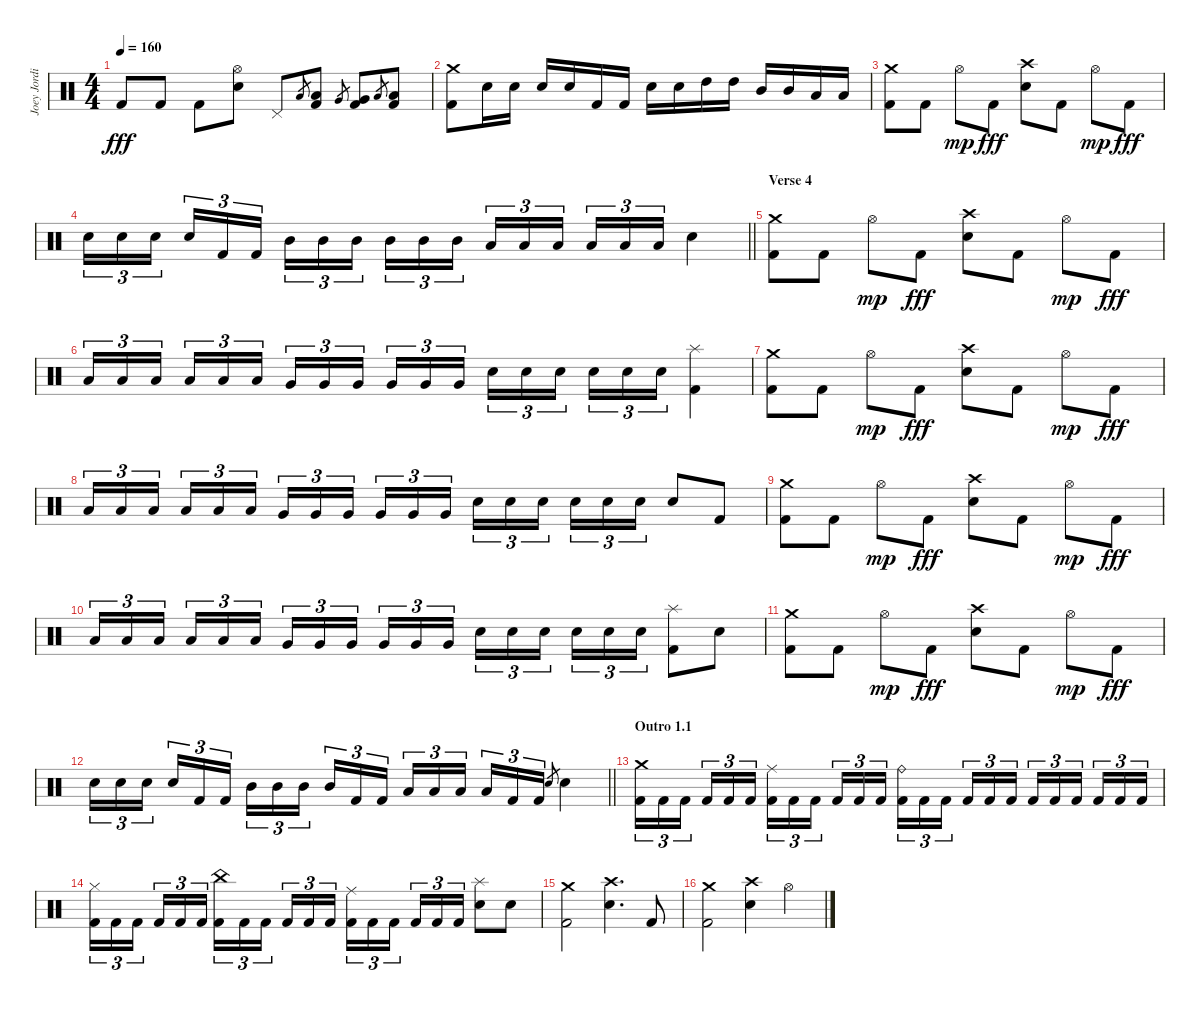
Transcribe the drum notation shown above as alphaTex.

\track ("Joey Jordison" "Joey Jordi") {instrument percussion}
\staff {score}
\articulation defaults
\ts (4 4)
\tempo 160
\clef neutral
\ks c "Kick (hit) 2".8{dy fff} "Kick (hit) 2".8 "Kick (hit) 2".8
("Hi-Hat (open)" "Electric Snare (hit)").8 "Pedal Hi-Hat (hit)".8 "Low Tom (hit)".8{gr} ("Low Tom (hit)" "Kick (hit) 2").8 "Very Low Tom (hit)".8{gr} ("Very Low Tom (hit)" "Kick (hit) 2").8 "Low Floor Tom (hit)".8{gr} ("Low Floor Tom (hit)" "Kick (hit) 2").8 |
("Crash medium (hit)" "Kick (hit) 2").8 "Electric Snare (hit)".16 "Electric Snare (hit)".16 "Electric Snare (hit)".16 "Electric Snare (hit)".16 "Kick (hit) 2".16 "Kick (hit) 2".16 "Electric Snare (hit)".16 "Electric Snare (hit)".16 "High Tom (hit)".16 "High Tom (hit)".16 "Mid Tom (hit)".16 "Mid Tom (hit)".16 "Low Tom (hit)".16 "Low Tom (hit)".16 |
("Crash medium (hit)" "Kick (hit) 2").8 "Kick (hit) 2".8 "Hi-Hat (open)".8{dy mp} "Kick (hit) 2".8{dy fff} ("Crash high (hit)" "Electric Snare (hit)").8 "Kick (hit) 2".8 "Hi-Hat (open)".8{dy mp} "Kick (hit) 2".8{dy fff} |
\barLineRight lightlight "Electric Snare (hit)".16{tu (3 2)} "Electric Snare (hit)".16{tu (3 2)} "Electric Snare (hit)".16{tu (3 2) beam splitsecondary} "Electric Snare (hit)".16{tu (3 2)} "Kick (hit) 2".16{tu (3 2)} "Kick (hit) 2".16{tu (3 2)} "Mid Tom (hit)".16{tu (3 2)} "Mid Tom (hit)".16{tu (3 2)} "Mid Tom (hit)".16{tu (3 2) beam splitsecondary} "Mid Tom (hit)".16{tu (3 2)} "Mid Tom (hit)".16{tu (3 2)} "Mid Tom (hit)".16{tu (3 2)} "Low Tom (hit)".16{tu (3 2)} "Low Tom (hit)".16{tu (3 2)} "Low Tom (hit)".16{tu (3 2) beam splitsecondary} "Low Tom (hit)".16{tu (3 2)} "Low Tom (hit)".16{tu (3 2)} "Low Tom (hit)".16{tu (3 2)} "Electric Snare (hit)".4
|
\section ("" "Verse 4")
("Crash medium (hit)" "Kick (hit) 2").8 "Kick (hit) 2".8 "Hi-Hat (open)".8{dy mp} "Kick (hit) 2".8{dy fff} ("Crash high (hit)" "Electric Snare (hit)").8 "Kick (hit) 2".8 "Hi-Hat (open)".8{dy mp} "Kick (hit) 2".8{dy fff} |
"Low Tom (hit)".16{tu (3 2)} "Low Tom (hit)".16{tu (3 2)} "Low Tom (hit)".16{tu (3 2) beam splitsecondary} "Low Tom (hit)".16{tu (3 2)} "Low Tom (hit)".16{tu (3 2)} "Low Tom (hit)".16{tu (3 2)} "Very Low Tom (hit)".16{tu (3 2)} "Very Low Tom (hit)".16{tu (3 2)} "Very Low Tom (hit)".16{tu (3 2) beam splitsecondary} "Very Low Tom (hit)".16{tu (3 2)} "Very Low Tom (hit)".16{tu (3 2)} "Very Low Tom (hit)".16{tu (3 2)} "Electric Snare (hit)".16{tu (3 2)} "Electric Snare (hit)".16{tu (3 2)} "Electric Snare (hit)".16{tu (3 2) beam splitsecondary} "Electric Snare (hit)".16{tu (3 2)} "Electric Snare (hit)".16{tu (3 2)} "Electric Snare (hit)".16{tu (3 2)} ("Splash (hit)" "Kick (hit) 2").4 |
("Crash medium (hit)" "Kick (hit) 2").8 "Kick (hit) 2".8 "Hi-Hat (open)".8{dy mp} "Kick (hit) 2".8{dy fff} ("Crash high (hit)" "Electric Snare (hit)").8 "Kick (hit) 2".8 "Hi-Hat (open)".8{dy mp} "Kick (hit) 2".8{dy fff} |
"Low Tom (hit)".16{tu (3 2)} "Low Tom (hit)".16{tu (3 2)} "Low Tom (hit)".16{tu (3 2) beam splitsecondary} "Low Tom (hit)".16{tu (3 2)} "Low Tom (hit)".16{tu (3 2)} "Low Tom (hit)".16{tu (3 2)} "Very Low Tom (hit)".16{tu (3 2)} "Very Low Tom (hit)".16{tu (3 2)} "Very Low Tom (hit)".16{tu (3 2) beam splitsecondary} "Very Low Tom (hit)".16{tu (3 2)} "Very Low Tom (hit)".16{tu (3 2)} "Very Low Tom (hit)".16{tu (3 2)} "Electric Snare (hit)".16{tu (3 2)} "Electric Snare (hit)".16{tu (3 2)} "Electric Snare (hit)".16{tu (3 2) beam splitsecondary} "Electric Snare (hit)".16{tu (3 2)} "Electric Snare (hit)".16{tu (3 2)} "Electric Snare (hit)".16{tu (3 2)} "Electric Snare (hit)".8 "Kick (hit) 2".8 |
("Crash medium (hit)" "Kick (hit) 2").8 "Kick (hit) 2".8 "Hi-Hat (open)".8{dy mp} "Kick (hit) 2".8{dy fff} ("Crash high (hit)" "Electric Snare (hit)").8 "Kick (hit) 2".8 "Hi-Hat (open)".8{dy mp} "Kick (hit) 2".8{dy fff} |
"Low Tom (hit)".16{tu (3 2)} "Low Tom (hit)".16{tu (3 2)} "Low Tom (hit)".16{tu (3 2) beam splitsecondary} "Low Tom (hit)".16{tu (3 2)} "Low Tom (hit)".16{tu (3 2)} "Low Tom (hit)".16{tu (3 2)} "Very Low Tom (hit)".16{tu (3 2)} "Very Low Tom (hit)".16{tu (3 2)} "Very Low Tom (hit)".16{tu (3 2) beam splitsecondary} "Very Low Tom (hit)".16{tu (3 2)} "Very Low Tom (hit)".16{tu (3 2)} "Very Low Tom (hit)".16{tu (3 2)} "Electric Snare (hit)".16{tu (3 2)} "Electric Snare (hit)".16{tu (3 2)} "Electric Snare (hit)".16{tu (3 2) beam splitsecondary} "Electric Snare (hit)".16{tu (3 2)} "Electric Snare (hit)".16{tu (3 2)} "Electric Snare (hit)".16{tu (3 2)} ("Splash (hit)" "Kick (hit) 2").8 "Electric Snare (hit)".8 |
("Crash medium (hit)" "Kick (hit) 2").8 "Kick (hit) 2".8 "Hi-Hat (open)".8{dy mp} "Kick (hit) 2".8{dy fff} ("Crash high (hit)" "Electric Snare (hit)").8 "Kick (hit) 2".8 "Hi-Hat (open)".8{dy mp} "Kick (hit) 2".8{dy fff} |
\barLineRight lightlight "Electric Snare (hit)".16{tu (3 2)} "Electric Snare (hit)".16{tu (3 2)} "Electric Snare (hit)".16{tu (3 2) beam splitsecondary} "Electric Snare (hit)".16{tu (3 2)} "Kick (hit) 2".16{tu (3 2)} "Kick (hit) 2".16{tu (3 2)} "Mid Tom (hit)".16{tu (3 2)} "Mid Tom (hit)".16{tu (3 2)} "Mid Tom (hit)".16{tu (3 2) beam splitsecondary} "Mid Tom (hit)".16{tu (3 2)} "Kick (hit) 2".16{tu (3 2)} "Kick (hit) 2".16{tu (3 2)} "Low Tom (hit)".16{tu (3 2)} "Low Tom (hit)".16{tu (3 2)} "Low Tom (hit)".16{tu (3 2) beam splitsecondary} "Low Tom (hit)".16{tu (3 2)} "Kick (hit) 2".16{tu (3 2)} "Kick (hit) 2".16{tu (3 2)} "Electric Snare (hit)".8{gr} "Electric Snare (hit)".4
|
\section ("" "Outro 1.1")
("Crash medium (hit)" "Kick (hit) 2").16{tu (3 2)} "Kick (hit) 2".16{tu (3 2)} "Kick (hit) 2".16{tu (3 2) beam splitsecondary} "Kick (hit) 2".16{tu (3 2)} "Kick (hit) 2".16{tu (3 2)} "Kick (hit) 2".16{tu (3 2)} ("Ride (middle)" "Kick (hit) 2").16{tu (3 2)} "Kick (hit) 2".16{tu (3 2)} "Kick (hit) 2".16{tu (3 2) beam splitsecondary} "Kick (hit) 2".16{tu (3 2)} "Kick (hit) 2".16{tu (3 2)} "Kick (hit) 2".16{tu (3 2)} ("Ride (bell)" "Kick (hit) 2").16{tu (3 2)} "Kick (hit) 2".16{tu (3 2)} "Kick (hit) 2".16{tu (3 2) beam splitsecondary} "Kick (hit) 2".16{tu (3 2)} "Kick (hit) 2".16{tu (3 2)} "Kick (hit) 2".16{tu (3 2)} "Kick (hit) 2".16{tu (3 2)} "Kick (hit) 2".16{tu (3 2)} "Kick (hit) 2".16{tu (3 2) beam splitsecondary} "Kick (hit) 2".16{tu (3 2)} "Kick (hit) 2".16{tu (3 2)} "Kick (hit) 2".16{tu (3 2)} |
("Hi-Hat (closed)" "Kick (hit) 2").16{tu (3 2)} "Kick (hit) 2".16{tu (3 2)} "Kick (hit) 2".16{tu (3 2) beam splitsecondary} "Kick (hit) 2".16{tu (3 2)} "Kick (hit) 2".16{tu (3 2)} "Kick (hit) 2".16{tu (3 2)} ("China (hit)" "Kick (hit) 2").16{tu (3 2)} "Kick (hit) 2".16{tu (3 2)} "Kick (hit) 2".16{tu (3 2) beam splitsecondary} "Kick (hit) 2".16{tu (3 2)} "Kick (hit) 2".16{tu (3 2)} "Kick (hit) 2".16{tu (3 2)} ("Ride (middle)" "Kick (hit) 2").16{tu (3 2)} "Kick (hit) 2".16{tu (3 2)} "Kick (hit) 2".16{tu (3 2) beam splitsecondary} "Kick (hit) 2".16{tu (3 2)} "Kick (hit) 2".16{tu (3 2)} "Kick (hit) 2".16{tu (3 2)} ("Splash (hit)" "Electric Snare (hit)").8 "Electric Snare (hit)".8 |
("Crash medium (hit)" "Kick (hit) 2").2 ("Crash high (hit)" "Electric Snare (hit)").4{d} "Kick (hit) 2".8 |
("Crash medium (hit)" "Kick (hit) 2").2 ("Crash high (hit)" "Electric Snare (hit)").4 "Hi-Hat (open)".4
